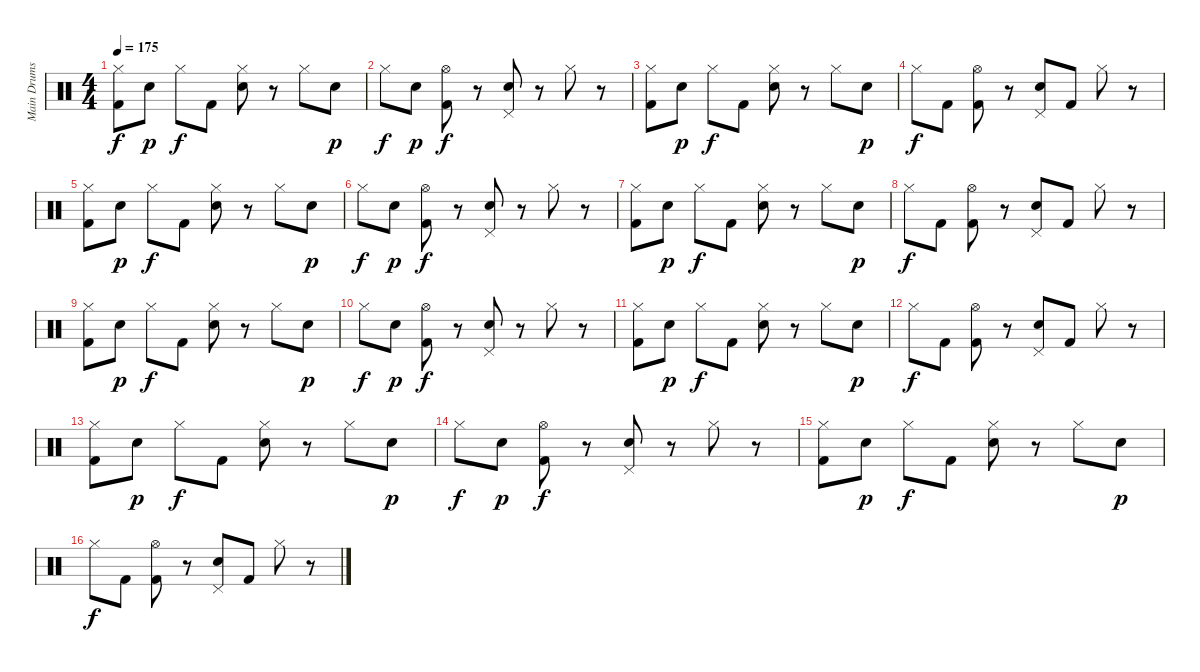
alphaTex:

\track ("Main Drums" "Main Drums") {instrument percussion}
\staff {score}
\articulation defaults
\ts (4 4)
\tempo 175
\clef neutral
\ks c
("Hi-Hat (closed)" "Kick (hit) 2").8{dy f} "Electric Snare (hit)".8{dy p} "Hi-Hat (closed)".8{dy f} "Kick (hit) 2".8 ("Hi-Hat (closed)" "Electric Snare (hit)").8 r.8 "Hi-Hat (closed)".8 "Electric Snare (hit)".8{dy p} |
"Hi-Hat (closed)".8{dy f} "Electric Snare (hit)".8{dy p} ("Hi-Hat (open)" "Kick (hit) 2").8{dy f} r.8 ("Pedal Hi-Hat (hit)" "Electric Snare (hit)").8 r.8 "Hi-Hat (closed)".8 r.8 |
("Hi-Hat (closed)" "Kick (hit) 2").8 "Electric Snare (hit)".8{dy p} "Hi-Hat (closed)".8{dy f} "Kick (hit) 2".8 ("Hi-Hat (closed)" "Electric Snare (hit)").8 r.8 "Hi-Hat (closed)".8 "Electric Snare (hit)".8{dy p} |
"Hi-Hat (closed)".8{dy f} "Kick (hit) 2".8 ("Hi-Hat (open)" "Kick (hit) 2").8 r.8 ("Pedal Hi-Hat (hit)" "Electric Snare (hit)").8 "Kick (hit) 2".8 "Hi-Hat (closed)".8 r.8 |
("Hi-Hat (closed)" "Kick (hit) 2").8 "Electric Snare (hit)".8{dy p} "Hi-Hat (closed)".8{dy f} "Kick (hit) 2".8 ("Hi-Hat (closed)" "Electric Snare (hit)").8 r.8 "Hi-Hat (closed)".8 "Electric Snare (hit)".8{dy p} |
"Hi-Hat (closed)".8{dy f} "Electric Snare (hit)".8{dy p} ("Hi-Hat (open)" "Kick (hit) 2").8{dy f} r.8 ("Pedal Hi-Hat (hit)" "Electric Snare (hit)").8 r.8 "Hi-Hat (closed)".8 r.8 |
("Hi-Hat (closed)" "Kick (hit) 2").8 "Electric Snare (hit)".8{dy p} "Hi-Hat (closed)".8{dy f} "Kick (hit) 2".8 ("Hi-Hat (closed)" "Electric Snare (hit)").8 r.8 "Hi-Hat (closed)".8 "Electric Snare (hit)".8{dy p} |
"Hi-Hat (closed)".8{dy f} "Kick (hit) 2".8 ("Hi-Hat (open)" "Kick (hit) 2").8 r.8 ("Pedal Hi-Hat (hit)" "Electric Snare (hit)").8 "Kick (hit) 2".8 "Hi-Hat (closed)".8 r.8 |
("Hi-Hat (closed)" "Kick (hit) 2").8 "Electric Snare (hit)".8{dy p} "Hi-Hat (closed)".8{dy f} "Kick (hit) 2".8 ("Hi-Hat (closed)" "Electric Snare (hit)").8 r.8 "Hi-Hat (closed)".8 "Electric Snare (hit)".8{dy p} |
"Hi-Hat (closed)".8{dy f} "Electric Snare (hit)".8{dy p} ("Hi-Hat (open)" "Kick (hit) 2").8{dy f} r.8 ("Pedal Hi-Hat (hit)" "Electric Snare (hit)").8 r.8 "Hi-Hat (closed)".8 r.8 |
("Hi-Hat (closed)" "Kick (hit) 2").8 "Electric Snare (hit)".8{dy p} "Hi-Hat (closed)".8{dy f} "Kick (hit) 2".8 ("Hi-Hat (closed)" "Electric Snare (hit)").8 r.8 "Hi-Hat (closed)".8 "Electric Snare (hit)".8{dy p} |
"Hi-Hat (closed)".8{dy f} "Kick (hit) 2".8 ("Hi-Hat (open)" "Kick (hit) 2").8 r.8 ("Pedal Hi-Hat (hit)" "Electric Snare (hit)").8 "Kick (hit) 2".8 "Hi-Hat (closed)".8 r.8 |
("Hi-Hat (closed)" "Kick (hit) 2").8 "Electric Snare (hit)".8{dy p} "Hi-Hat (closed)".8{dy f} "Kick (hit) 2".8 ("Hi-Hat (closed)" "Electric Snare (hit)").8 r.8 "Hi-Hat (closed)".8 "Electric Snare (hit)".8{dy p} |
"Hi-Hat (closed)".8{dy f} "Electric Snare (hit)".8{dy p} ("Hi-Hat (open)" "Kick (hit) 2").8{dy f} r.8 ("Pedal Hi-Hat (hit)" "Electric Snare (hit)").8 r.8 "Hi-Hat (closed)".8 r.8 |
("Hi-Hat (closed)" "Kick (hit) 2").8 "Electric Snare (hit)".8{dy p} "Hi-Hat (closed)".8{dy f} "Kick (hit) 2".8 ("Hi-Hat (closed)" "Electric Snare (hit)").8 r.8 "Hi-Hat (closed)".8 "Electric Snare (hit)".8{dy p} |
"Hi-Hat (closed)".8{dy f} "Kick (hit) 2".8 ("Hi-Hat (open)" "Kick (hit) 2").8 r.8 ("Pedal Hi-Hat (hit)" "Electric Snare (hit)").8 "Kick (hit) 2".8 "Hi-Hat (closed)".8 r.8
